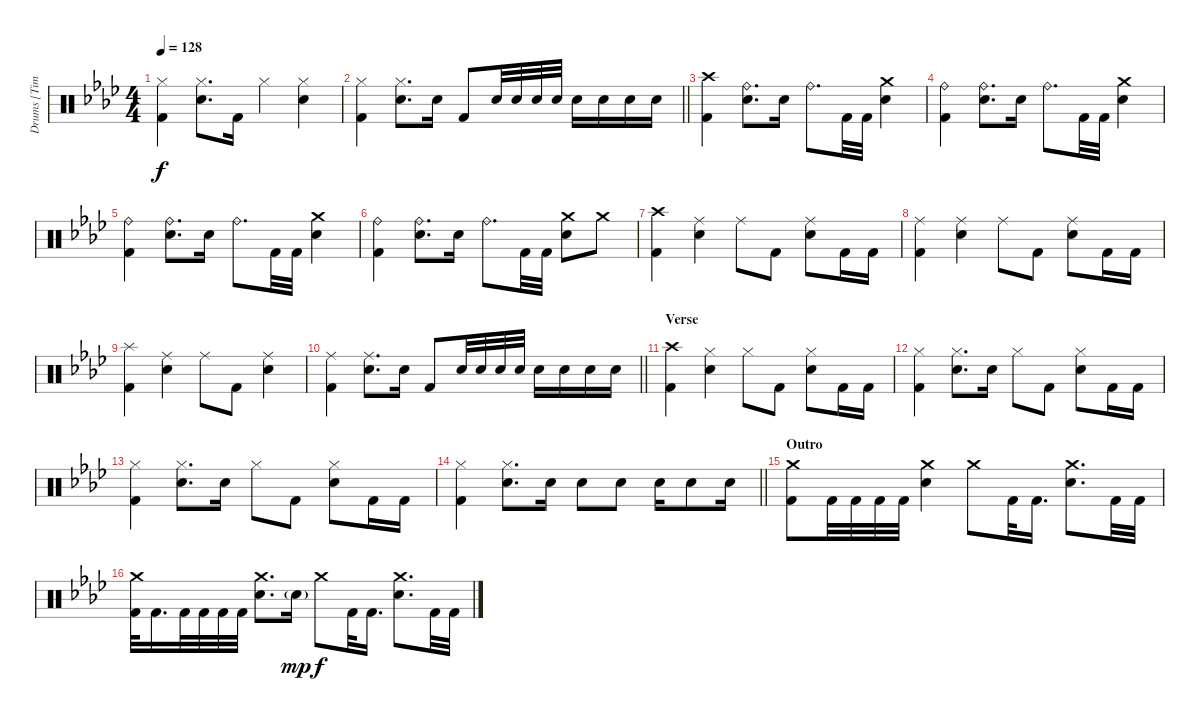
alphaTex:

\track ("Drums [Tim Alexander]" "Drums [Tim") {instrument percussion}
\staff {score}
\articulation defaults
\ts (4 4)
\tempo 128
\clef neutral
\ks ab
("Hi-Hat (closed)" "Kick (hit) 2").4{dy f} ("Hi-Hat (closed)" "Electric Snare (hit)").8{d} "Kick (hit) 2".16 "Hi-Hat (closed)".4 ("Hi-Hat (closed)" "Electric Snare (hit)").4 |
\barLineRight lightlight
("Hi-Hat (closed)" "Kick (hit) 2").4 ("Hi-Hat (closed)" "Electric Snare (hit)").8{d} "Electric Snare (hit)".16 "Kick (hit) 2".8 "Electric Snare (hit)".32 "Electric Snare (hit)".32 "Electric Snare (hit)".32 "Electric Snare (hit)".32 "Electric Snare (hit)".16 "Electric Snare (hit)".16 "Electric Snare (hit)".16 "Electric Snare (hit)".16 |
("Crash high (hit)" "Kick (hit) 2").4 ("Ride (bell)" "Electric Snare (hit)").8{d} "Electric Snare (hit)".16 "Ride (bell)".8{d} "Kick (hit) 2".32 "Kick (hit) 2".32 ("Crash medium (hit)" "Electric Snare (hit)").4 |
("Ride (bell)" "Kick (hit) 2").4 ("Ride (bell)" "Electric Snare (hit)").8{d} "Electric Snare (hit)".16 "Ride (bell)".8{d} "Kick (hit) 2".32 "Kick (hit) 2".32 ("Crash medium (hit)" "Electric Snare (hit)").4 |
("Ride (bell)" "Kick (hit) 2").4 ("Ride (bell)" "Electric Snare (hit)").8{d} "Electric Snare (hit)".16 "Ride (bell)".8{d} "Kick (hit) 2".32 "Kick (hit) 2".32 ("Crash medium (hit)" "Electric Snare (hit)").4 |
("Ride (bell)" "Kick (hit) 2").4 ("Ride (bell)" "Electric Snare (hit)").8{d} "Electric Snare (hit)".16 "Ride (bell)".8{d} "Kick (hit) 2".32 "Kick (hit) 2".32 ("Crash medium (hit)" "Electric Snare (hit)").8 "Crash medium (hit)".8 |
("Crash high (hit)" "Kick (hit) 2").4 ("Ride (middle)" "Electric Snare (hit)").4 "Ride (middle)".8 "Kick (hit) 2".8 ("Ride (middle)" "Electric Snare (hit)").8 "Kick (hit) 2".16 "Kick (hit) 2".16 |
("Ride (middle)" "Kick (hit) 2").4 ("Ride (middle)" "Electric Snare (hit)").4 "Ride (middle)".8 "Kick (hit) 2".8 ("Ride (middle)" "Electric Snare (hit)").8 "Kick (hit) 2".16 "Kick (hit) 2".16 |
("Splash (hit)" "Kick (hit) 2").4 ("Ride (middle)" "Electric Snare (hit)").4 "Ride (middle)".8 "Kick (hit) 2".8 ("Ride (middle)" "Electric Snare (hit)").4 |
\barLineRight lightlight
("Ride (middle)" "Kick (hit) 2").4 ("Ride (middle)" "Electric Snare (hit)").8{d} "Electric Snare (hit)".16 "Kick (hit) 2".8 "Electric Snare (hit)".32 "Electric Snare (hit)".32 "Electric Snare (hit)".32 "Electric Snare (hit)".32 "Electric Snare (hit)".16 "Electric Snare (hit)".16 "Electric Snare (hit)".16 "Electric Snare (hit)".16 |
\section ("" "Verse")
("Crash high (hit)" "Kick (hit) 2").4 ("Hi-Hat (closed)" "Electric Snare (hit)").4 "Hi-Hat (closed)".8 "Kick (hit) 2".8 ("Hi-Hat (closed)" "Electric Snare (hit)").8 "Kick (hit) 2".16 "Kick (hit) 2".16 |
("Hi-Hat (closed)" "Kick (hit) 2").4 ("Hi-Hat (closed)" "Electric Snare (hit)").8{d} "Electric Snare (hit)".16 "Hi-Hat (closed)".8 "Kick (hit) 2".8 ("Hi-Hat (closed)" "Electric Snare (hit)").8 "Kick (hit) 2".16 "Kick (hit) 2".16 |
("Hi-Hat (closed)" "Kick (hit) 2").4 ("Hi-Hat (closed)" "Electric Snare (hit)").8{d} "Electric Snare (hit)".16 "Hi-Hat (closed)".8 "Kick (hit) 2".8 ("Hi-Hat (closed)" "Electric Snare (hit)").8 "Kick (hit) 2".16 "Kick (hit) 2".16 |
\barLineRight lightlight
("Hi-Hat (closed)" "Kick (hit) 2").4 ("Hi-Hat (closed)" "Electric Snare (hit)").8{d} "Electric Snare (hit)".16 "Electric Snare (hit)".8 "Electric Snare (hit)".8 "Electric Snare (hit)".16 "Electric Snare (hit)".8 "Electric Snare (hit)".16 |
\section ("" "Outro")
("Crash medium (hit)" "Kick (hit) 2").8 "Kick (hit) 2".32 "Kick (hit) 2".32 "Kick (hit) 2".32 "Kick (hit) 2".32 ("Crash medium (hit)" "Electric Snare (hit)").4 "Crash medium (hit)".8 "Kick (hit) 2".32 "Kick (hit) 2".16{d} ("Crash medium (hit)" "Electric Snare (hit)").8{d} "Kick (hit) 2".32 "Kick (hit) 2".32 |
("Crash medium (hit)" "Kick (hit) 2").32 "Kick (hit) 2".16{d} "Kick (hit) 2".32 "Kick (hit) 2".32 "Kick (hit) 2".32 "Kick (hit) 2".32 ("Crash medium (hit)" "Electric Snare (hit)").8{d} "Electric Snare (hit)"{g}.16{dy mp} "Crash medium (hit)".8{dy f} "Kick (hit) 2".32 "Kick (hit) 2".16{d} ("Crash medium (hit)" "Electric Snare (hit)").8{d} "Kick (hit) 2".32 "Kick (hit) 2".32
